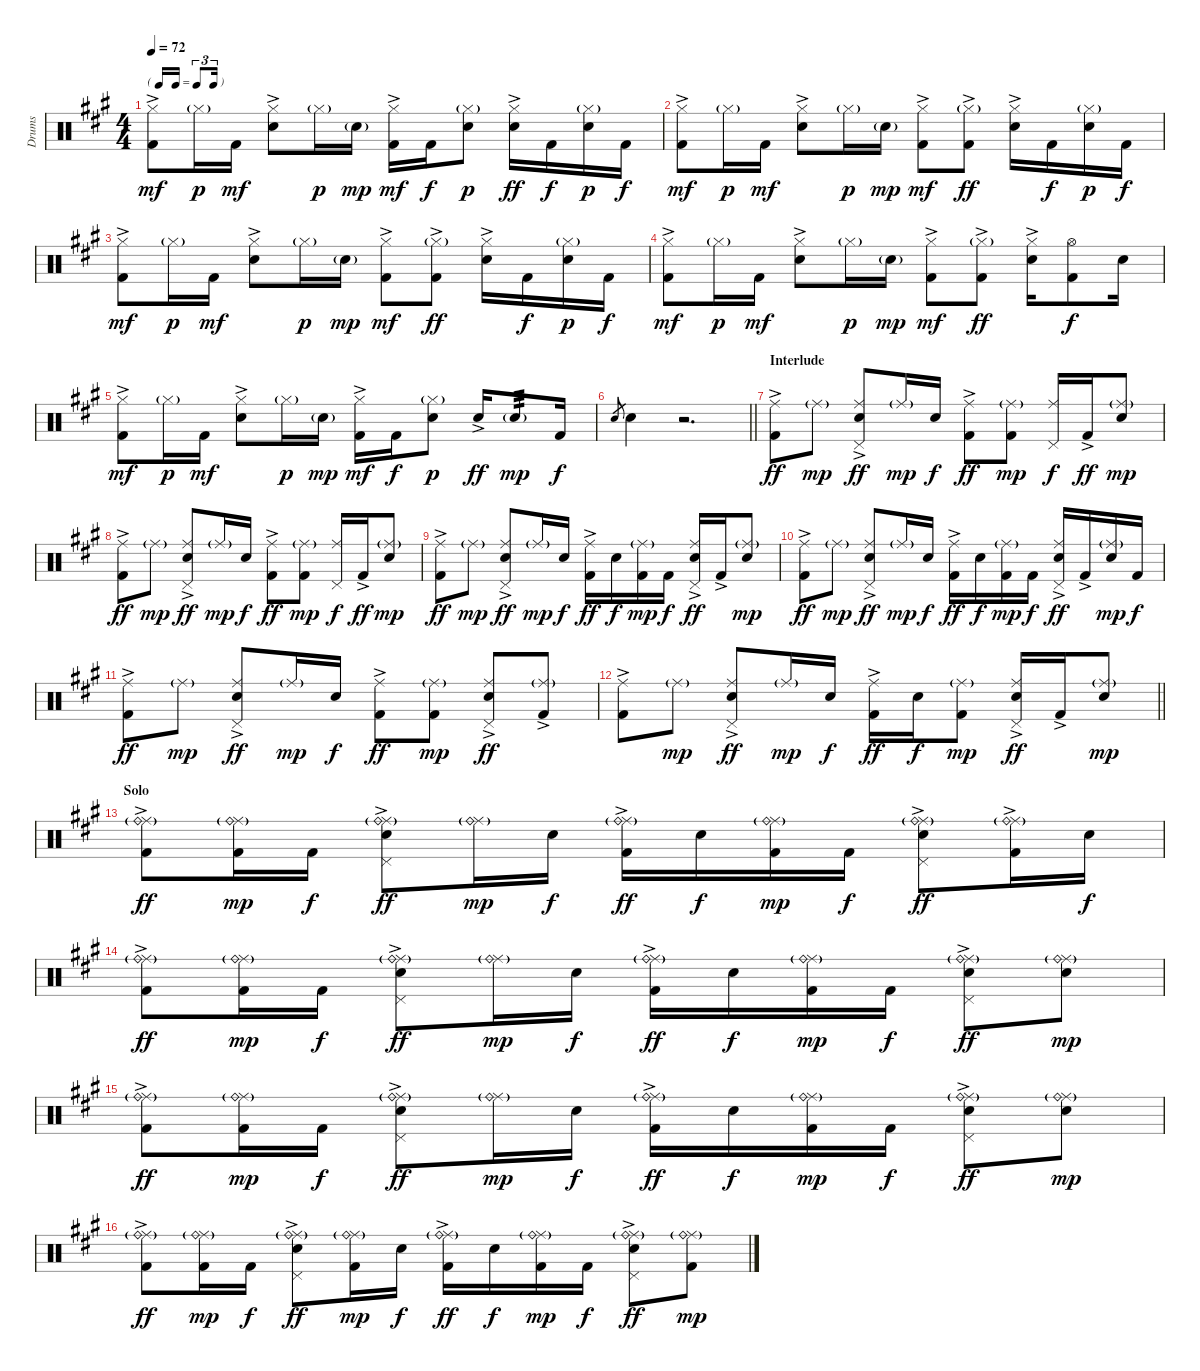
\track ("Drums" "Drums") {instrument percussion}
\staff {score}
\articulation defaults
\ts (4 4)
\tf triplet16th
\tempo 72
\clef neutral
\ks a
("Hi-Hat (closed)" "Kick (hit) 2"{ac}).8{dy mf} "Hi-Hat (closed)"{g}.16{dy p} "Kick (hit) 2".16{dy mf} ("Hi-Hat (closed)" "Snare (hit) 2"{ac}).8 "Hi-Hat (closed)"{g}.16{dy p} "Snare (hit) 2"{g}.16{dy mp} ("Hi-Hat (closed)" "Kick (hit) 2"{ac}).16{dy mf} "Kick (hit) 2".16{dy f} ("Hi-Hat (closed)"{g} "Snare (hit) 2").8{dy p} ("Hi-Hat (closed)" "Snare (hit) 2"{ac}).16{dy ff} "Kick (hit) 2".16{dy f} ("Hi-Hat (closed)"{g} "Snare (hit) 2").16{dy p} "Kick (hit) 2".16{dy f} |
("Hi-Hat (closed)" "Kick (hit) 2"{ac}).8{dy mf} "Hi-Hat (closed)"{g}.16{dy p} "Kick (hit) 2".16{dy mf} ("Hi-Hat (closed)" "Snare (hit) 2"{ac}).8 "Hi-Hat (closed)"{g}.16{dy p} "Snare (hit) 2"{g}.16{dy mp} ("Hi-Hat (closed)" "Kick (hit) 2"{ac}).8{dy mf} ("Hi-Hat (closed)"{g} "Kick (hit) 2"{ac}).8{dy ff} ("Hi-Hat (closed)" "Snare (hit) 2"{ac}).16 "Kick (hit) 2".16{dy f} ("Hi-Hat (closed)"{g} "Snare (hit) 2").16{dy p} "Kick (hit) 2".16{dy f} |
("Hi-Hat (closed)" "Kick (hit) 2"{ac}).8{dy mf} "Hi-Hat (closed)"{g}.16{dy p} "Kick (hit) 2".16{dy mf} ("Hi-Hat (closed)" "Snare (hit) 2"{ac}).8 "Hi-Hat (closed)"{g}.16{dy p} "Snare (hit) 2"{g}.16{dy mp} ("Hi-Hat (closed)" "Kick (hit) 2"{ac}).8{dy mf} ("Hi-Hat (closed)"{g} "Kick (hit) 2"{ac}).8{dy ff} ("Hi-Hat (closed)" "Snare (hit) 2"{ac}).16 "Kick (hit) 2".16{dy f} ("Hi-Hat (closed)"{g} "Snare (hit) 2").16{dy p} "Kick (hit) 2".16{dy f} |
("Hi-Hat (closed)" "Kick (hit) 2"{ac}).8{dy mf} "Hi-Hat (closed)"{g}.16{dy p} "Kick (hit) 2".16{dy mf} ("Hi-Hat (closed)" "Snare (hit) 2"{ac}).8 "Hi-Hat (closed)"{g}.16{dy p} "Snare (hit) 2"{g}.16{dy mp} ("Hi-Hat (closed)" "Kick (hit) 2"{ac}).8{dy mf} ("Hi-Hat (closed)"{g} "Kick (hit) 2"{ac}).8{dy ff} ("Hi-Hat (closed)" "Snare (hit) 2"{ac}).16 ("Hi-Hat (open)" "Kick (hit) 2").8{dy f} "Snare (hit) 2".16 |
("Hi-Hat (closed)" "Kick (hit) 2"{ac}).8{dy mf} "Hi-Hat (closed)"{g}.16{dy p} "Kick (hit) 2".16{dy mf} ("Hi-Hat (closed)" "Snare (hit) 2"{ac}).8 "Hi-Hat (closed)"{g}.16{dy p} "Snare (hit) 2"{g}.16{dy mp} ("Hi-Hat (closed)" "Kick (hit) 2"{ac}).16{dy mf} "Kick (hit) 2".16{dy f} ("Hi-Hat (closed)"{g} "Snare (hit) 2").8{dy p} "Snare (hit) 2"{ac}.16{dy ff} "Snare (hit) 2"{g}.8{tp 3 dy mp} "Kick (hit) 2".16{dy f} |
\barLineRight lightlight "Snare (hit) 2".8{gr} "Snare (hit) 2".4
r.2{d} |
\section ("" "Interlude")
("Ride (middle)" "Kick (hit) 2"{ac}).8{dy ff} "Ride (middle)"{g}.8{dy mp} ("Ride (middle)" "Pedal Hi-Hat (hit)" "Snare (hit) 2"{ac}).8{dy ff} "Ride (middle)"{g}.16{dy mp} "Snare (hit) 2".16{dy f} ("Ride (middle)" "Kick (hit) 2"{ac}).8{dy ff} ("Ride (middle)"{g} "Kick (hit) 2").8{dy mp} ("Ride (middle)" "Pedal Hi-Hat (hit)").16{dy f} "Kick (hit) 2"{ac}.16{dy ff} ("Ride (middle)"{g} "Snare (hit) 2").8{dy mp} |
("Ride (middle)" "Kick (hit) 2"{ac}).8{dy ff} "Ride (middle)"{g}.8{dy mp} ("Ride (middle)" "Pedal Hi-Hat (hit)" "Snare (hit) 2"{ac}).8{dy ff} "Ride (middle)"{g}.16{dy mp} "Snare (hit) 2".16{dy f} ("Ride (middle)" "Kick (hit) 2"{ac}).8{dy ff} ("Ride (middle)"{g} "Kick (hit) 2").8{dy mp} ("Ride (middle)" "Pedal Hi-Hat (hit)").16{dy f} "Kick (hit) 2"{ac}.16{dy ff} ("Ride (middle)"{g} "Snare (hit) 2").8{dy mp} |
("Ride (middle)" "Kick (hit) 2"{ac}).8{dy ff} "Ride (middle)"{g}.8{dy mp} ("Ride (middle)" "Pedal Hi-Hat (hit)" "Snare (hit) 2"{ac}).8{dy ff} "Ride (middle)"{g}.16{dy mp} "Snare (hit) 2".16{dy f} ("Ride (middle)" "Kick (hit) 2"{ac}).16{dy ff} "Snare (hit) 2".16{dy f} ("Ride (middle)"{g} "Kick (hit) 2").16{dy mp} "Kick (hit) 2".16{dy f} ("Ride (middle)" "Pedal Hi-Hat (hit)" "Snare (hit) 2"{ac}).16{dy ff} "Kick (hit) 2"{ac}.16 ("Ride (middle)"{g} "Snare (hit) 2").8{dy mp} |
("Ride (middle)" "Kick (hit) 2"{ac}).8{dy ff} "Ride (middle)"{g}.8{dy mp} ("Ride (middle)" "Pedal Hi-Hat (hit)" "Snare (hit) 2"{ac}).8{dy ff} "Ride (middle)"{g}.16{dy mp} "Snare (hit) 2".16{dy f} ("Ride (middle)" "Kick (hit) 2"{ac}).16{dy ff} "Snare (hit) 2".16{dy f} ("Ride (middle)"{g} "Kick (hit) 2").16{dy mp} "Kick (hit) 2".16{dy f} ("Ride (middle)" "Pedal Hi-Hat (hit)" "Snare (hit) 2"{ac}).16{dy ff} "Kick (hit) 2"{ac}.16 ("Ride (middle)"{g} "Snare (hit) 2").16{dy mp} "Kick (hit) 2".16{dy f} |
("Ride (middle)" "Kick (hit) 2"{ac}).8{dy ff} "Ride (middle)"{g}.8{dy mp} ("Ride (middle)" "Pedal Hi-Hat (hit)" "Snare (hit) 2"{ac}).8{dy ff} "Ride (middle)"{g}.16{dy mp} "Snare (hit) 2".16{dy f} ("Ride (middle)" "Kick (hit) 2"{ac}).8{dy ff} ("Ride (middle)"{g} "Kick (hit) 2").8{dy mp} ("Ride (middle)" "Pedal Hi-Hat (hit)" "Snare (hit) 2"{ac}).8{dy ff} ("Ride (middle)"{g} "Kick (hit) 2"{ac}).8 |
\barLineRight lightlight
("Ride (middle)" "Kick (hit) 2"{ac}).8 "Ride (middle)"{g}.8{dy mp} ("Ride (middle)" "Pedal Hi-Hat (hit)" "Snare (hit) 2"{ac}).8{dy ff} "Ride (middle)"{g}.16{dy mp} "Snare (hit) 2".16{dy f} ("Ride (middle)" "Kick (hit) 2"{ac}).16{dy ff} "Snare (hit) 2".16{dy f} ("Ride (middle)"{g} "Kick (hit) 2").8{dy mp} ("Ride (middle)" "Pedal Hi-Hat (hit)" "Snare (hit) 2"{ac}).16{dy ff} "Kick (hit) 2"{ac}.16 ("Ride (middle)"{g} "Snare (hit) 2").8{dy mp} |
\section ("" "Solo")
("Ride (middle)" "Ride (bell)"{g} "Kick (hit) 2"{ac}).8{dy ff} ("Ride (middle)"{g} "Ride (bell)"{g} "Kick (hit) 2").16{dy mp} "Kick (hit) 2".16{dy f} ("Ride (middle)" "Ride (bell)"{g} "Snare (hit) 2"{ac} "Pedal Hi-Hat (hit)").8{dy ff} ("Ride (middle)"{g} "Ride (bell)"{g}).16{dy mp} "Snare (hit) 2".16{dy f} ("Ride (middle)" "Ride (bell)"{g} "Kick (hit) 2"{ac}).16{dy ff} "Snare (hit) 2".16{dy f} ("Ride (middle)"{g} "Ride (bell)"{g} "Kick (hit) 2").16{dy mp} "Kick (hit) 2".16{dy f} ("Ride (middle)" "Ride (bell)"{g} "Snare (hit) 2"{ac} "Pedal Hi-Hat (hit)").8{dy ff} ("Ride (middle)"{g} "Ride (bell)"{g} "Kick (hit) 2"{ac}).16 "Snare (hit) 2".16{dy f} |
("Ride (middle)" "Ride (bell)"{g} "Kick (hit) 2"{ac}).8{dy ff} ("Ride (middle)"{g} "Ride (bell)"{g} "Kick (hit) 2").16{dy mp} "Kick (hit) 2".16{dy f} ("Ride (middle)" "Ride (bell)"{g} "Snare (hit) 2"{ac} "Pedal Hi-Hat (hit)").8{dy ff} ("Ride (middle)"{g} "Ride (bell)"{g}).16{dy mp} "Snare (hit) 2".16{dy f} ("Ride (middle)" "Ride (bell)"{g} "Kick (hit) 2"{ac}).16{dy ff} "Snare (hit) 2".16{dy f} ("Ride (middle)"{g} "Ride (bell)"{g} "Kick (hit) 2").16{dy mp} "Kick (hit) 2".16{dy f} ("Ride (middle)" "Ride (bell)"{g} "Snare (hit) 2"{ac} "Pedal Hi-Hat (hit)").8{dy ff} ("Ride (middle)"{g} "Ride (bell)"{g} "Snare (hit) 2").8{dy mp} |
("Ride (middle)" "Ride (bell)"{g} "Kick (hit) 2"{ac}).8{dy ff} ("Ride (middle)"{g} "Ride (bell)"{g} "Kick (hit) 2").16{dy mp} "Kick (hit) 2".16{dy f} ("Ride (middle)" "Ride (bell)"{g} "Snare (hit) 2"{ac} "Pedal Hi-Hat (hit)").8{dy ff} ("Ride (middle)"{g} "Ride (bell)"{g}).16{dy mp} "Snare (hit) 2".16{dy f} ("Ride (middle)" "Ride (bell)"{g} "Kick (hit) 2"{ac}).16{dy ff} "Snare (hit) 2".16{dy f} ("Ride (middle)"{g} "Ride (bell)"{g} "Kick (hit) 2").16{dy mp} "Kick (hit) 2".16{dy f} ("Ride (middle)" "Ride (bell)"{g} "Snare (hit) 2"{ac} "Pedal Hi-Hat (hit)").8{dy ff} ("Ride (middle)"{g} "Ride (bell)"{g} "Snare (hit) 2").8{dy mp} |
("Ride (middle)" "Ride (bell)"{g} "Kick (hit) 2"{ac}).8{dy ff} ("Ride (middle)"{g} "Ride (bell)"{g} "Kick (hit) 2").16{dy mp} "Kick (hit) 2".16{dy f} ("Ride (middle)" "Ride (bell)"{g} "Snare (hit) 2"{ac} "Pedal Hi-Hat (hit)").8{dy ff} ("Ride (middle)"{g} "Ride (bell)"{g} "Kick (hit) 2").16{dy mp} "Snare (hit) 2".16{dy f} ("Ride (middle)" "Ride (bell)"{g} "Kick (hit) 2"{ac}).16{dy ff} "Snare (hit) 2".16{dy f} ("Ride (middle)"{g} "Ride (bell)"{g} "Kick (hit) 2").16{dy mp} "Kick (hit) 2".16{dy f} ("Ride (middle)" "Ride (bell)"{g} "Snare (hit) 2"{ac} "Pedal Hi-Hat (hit)").8{dy ff} ("Ride (middle)"{g} "Ride (bell)"{g} "Kick (hit) 2").8{dy mp}
